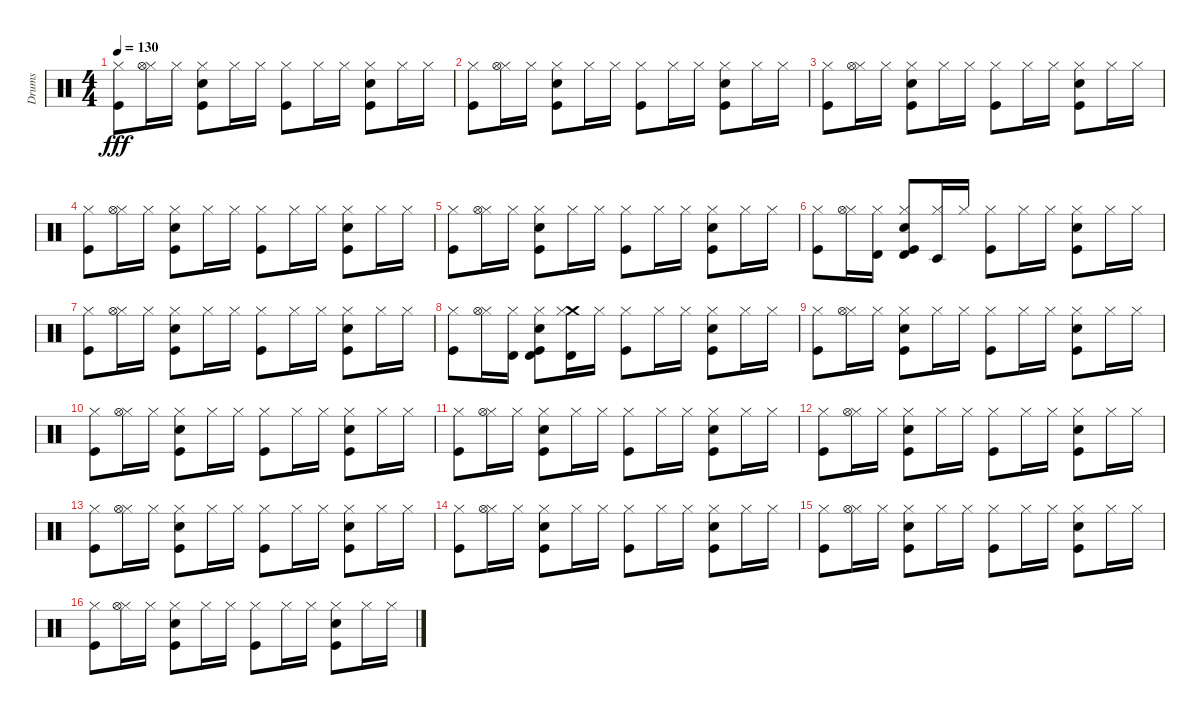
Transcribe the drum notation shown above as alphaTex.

\track ("Drums" "Drums") {instrument percussion}
\staff {score}
\articulation defaults
\ts (4 4)
\tempo 130
\clef neutral
\ks c
("Kick (hit)" "Hi-Hat (closed)").8{dy fff} ("Hi-Hat (closed)" "Hi-Hat (open)").16 "Hi-Hat (closed)".16 ("Kick (hit)" "Electric Snare (hit)" "Hi-Hat (closed)").8 "Hi-Hat (closed)".16 "Hi-Hat (closed)".16 ("Kick (hit)" "Hi-Hat (closed)").8 "Hi-Hat (closed)".16 "Hi-Hat (closed)".16 ("Kick (hit)" "Electric Snare (hit)" "Hi-Hat (closed)").8 "Hi-Hat (closed)".16 "Hi-Hat (closed)".16 |
("Kick (hit)" "Hi-Hat (closed)").8 ("Hi-Hat (closed)" "Hi-Hat (open)").16 "Hi-Hat (closed)".16 ("Kick (hit)" "Electric Snare (hit)" "Hi-Hat (closed)").8 "Hi-Hat (closed)".16 "Hi-Hat (closed)".16 ("Kick (hit)" "Hi-Hat (closed)").8 "Hi-Hat (closed)".16 "Hi-Hat (closed)".16 ("Kick (hit)" "Electric Snare (hit)" "Hi-Hat (closed)").8 "Hi-Hat (closed)".16 "Hi-Hat (closed)".16 |
("Kick (hit)" "Hi-Hat (closed)").8 ("Hi-Hat (closed)" "Hi-Hat (open)").16 "Hi-Hat (closed)".16 ("Kick (hit)" "Electric Snare (hit)" "Hi-Hat (closed)").8 "Hi-Hat (closed)".16 "Hi-Hat (closed)".16 ("Kick (hit)" "Hi-Hat (closed)").8 "Hi-Hat (closed)".16 "Hi-Hat (closed)".16 ("Kick (hit)" "Electric Snare (hit)" "Hi-Hat (closed)").8 "Hi-Hat (closed)".16 "Hi-Hat (closed)".16 |
("Kick (hit)" "Hi-Hat (closed)").8 ("Hi-Hat (closed)" "Hi-Hat (open)").16 "Hi-Hat (closed)".16 ("Kick (hit)" "Electric Snare (hit)" "Hi-Hat (closed)").8 "Hi-Hat (closed)".16 "Hi-Hat (closed)".16 ("Kick (hit)" "Hi-Hat (closed)").8 "Hi-Hat (closed)".16 "Hi-Hat (closed)".16 ("Kick (hit)" "Electric Snare (hit)" "Hi-Hat (closed)").8 "Hi-Hat (closed)".16 "Hi-Hat (closed)".16 |
("Kick (hit)" "Hi-Hat (closed)").8 ("Hi-Hat (closed)" "Hi-Hat (open)").16 "Hi-Hat (closed)".16 ("Kick (hit)" "Electric Snare (hit)" "Hi-Hat (closed)").8 "Hi-Hat (closed)".16 "Hi-Hat (closed)".16 ("Kick (hit)" "Hi-Hat (closed)").8 "Hi-Hat (closed)".16 "Hi-Hat (closed)".16 ("Kick (hit)" "Electric Snare (hit)" "Hi-Hat (closed)").8 "Hi-Hat (closed)".16 "Hi-Hat (closed)".16 |
("Kick (hit)" "Hi-Hat (closed)").8 ("Hi-Hat (closed)" "Hi-Hat (open)").16 ("Hi-Hat (closed)" "Timbale high (hit)").16 ("Kick (hit)" "Electric Snare (hit)" "Hi-Hat (closed)" "Timbale high (hit)").8 ("Hi-Hat (closed)" "Timbale low (hit)").16 "Hi-Hat (closed)".16 ("Kick (hit)" "Hi-Hat (closed)").8 "Hi-Hat (closed)".16 "Hi-Hat (closed)".16 ("Kick (hit)" "Electric Snare (hit)" "Hi-Hat (closed)").8 "Hi-Hat (closed)".16 "Hi-Hat (closed)".16 |
("Kick (hit)" "Hi-Hat (closed)").8 ("Hi-Hat (closed)" "Hi-Hat (open)").16 "Hi-Hat (closed)".16 ("Kick (hit)" "Electric Snare (hit)" "Hi-Hat (closed)").8 "Hi-Hat (closed)".16 "Hi-Hat (closed)".16 ("Kick (hit)" "Hi-Hat (closed)").8 "Hi-Hat (closed)".16 "Hi-Hat (closed)".16 ("Kick (hit)" "Electric Snare (hit)" "Hi-Hat (closed)").8 "Hi-Hat (closed)".16 "Hi-Hat (closed)".16 |
("Kick (hit)" "Hi-Hat (closed)").8 ("Hi-Hat (closed)" "Hi-Hat (open)").16 ("Hi-Hat (closed)" "Timbale high (hit)").16 ("Kick (hit)" "Electric Snare (hit)" "Hi-Hat (closed)" "Timbale high (hit)").8 ("Crash medium (hit)" "Hi-Hat (closed)" "Timbale high (hit)").16 "Hi-Hat (closed)".16 ("Kick (hit)" "Hi-Hat (closed)").8 "Hi-Hat (closed)".16 "Hi-Hat (closed)".16 ("Kick (hit)" "Electric Snare (hit)" "Hi-Hat (closed)").8 "Hi-Hat (closed)".16 "Hi-Hat (closed)".16 |
("Kick (hit)" "Hi-Hat (closed)").8 ("Hi-Hat (closed)" "Hi-Hat (open)").16 "Hi-Hat (closed)".16 ("Kick (hit)" "Electric Snare (hit)" "Hi-Hat (closed)").8 "Hi-Hat (closed)".16 "Hi-Hat (closed)".16 ("Kick (hit)" "Hi-Hat (closed)").8 "Hi-Hat (closed)".16 "Hi-Hat (closed)".16 ("Kick (hit)" "Electric Snare (hit)" "Hi-Hat (closed)").8 "Hi-Hat (closed)".16 "Hi-Hat (closed)".16 |
("Kick (hit)" "Hi-Hat (closed)").8 ("Hi-Hat (closed)" "Hi-Hat (open)").16 "Hi-Hat (closed)".16 ("Kick (hit)" "Electric Snare (hit)" "Hi-Hat (closed)").8 "Hi-Hat (closed)".16 "Hi-Hat (closed)".16 ("Kick (hit)" "Hi-Hat (closed)").8 "Hi-Hat (closed)".16 "Hi-Hat (closed)".16 ("Kick (hit)" "Electric Snare (hit)" "Hi-Hat (closed)").8 "Hi-Hat (closed)".16 "Hi-Hat (closed)".16 |
("Kick (hit)" "Hi-Hat (closed)").8 ("Hi-Hat (closed)" "Hi-Hat (open)").16 "Hi-Hat (closed)".16 ("Kick (hit)" "Electric Snare (hit)" "Hi-Hat (closed)").8 "Hi-Hat (closed)".16 "Hi-Hat (closed)".16 ("Kick (hit)" "Hi-Hat (closed)").8 "Hi-Hat (closed)".16 "Hi-Hat (closed)".16 ("Kick (hit)" "Electric Snare (hit)" "Hi-Hat (closed)").8 "Hi-Hat (closed)".16 "Hi-Hat (closed)".16 |
("Kick (hit)" "Hi-Hat (closed)").8 ("Hi-Hat (closed)" "Hi-Hat (open)").16 "Hi-Hat (closed)".16 ("Kick (hit)" "Electric Snare (hit)" "Hi-Hat (closed)").8 "Hi-Hat (closed)".16 "Hi-Hat (closed)".16 ("Kick (hit)" "Hi-Hat (closed)").8 "Hi-Hat (closed)".16 "Hi-Hat (closed)".16 ("Kick (hit)" "Electric Snare (hit)" "Hi-Hat (closed)").8 "Hi-Hat (closed)".16 "Hi-Hat (closed)".16 |
("Kick (hit)" "Hi-Hat (closed)").8 ("Hi-Hat (closed)" "Hi-Hat (open)").16 "Hi-Hat (closed)".16 ("Kick (hit)" "Electric Snare (hit)" "Hi-Hat (closed)").8 "Hi-Hat (closed)".16 "Hi-Hat (closed)".16 ("Kick (hit)" "Hi-Hat (closed)").8 "Hi-Hat (closed)".16 "Hi-Hat (closed)".16 ("Kick (hit)" "Electric Snare (hit)" "Hi-Hat (closed)").8 "Hi-Hat (closed)".16 "Hi-Hat (closed)".16 |
("Kick (hit)" "Hi-Hat (closed)").8 ("Hi-Hat (closed)" "Hi-Hat (open)").16 "Hi-Hat (closed)".16 ("Kick (hit)" "Electric Snare (hit)" "Hi-Hat (closed)").8 "Hi-Hat (closed)".16 "Hi-Hat (closed)".16 ("Kick (hit)" "Hi-Hat (closed)").8 "Hi-Hat (closed)".16 "Hi-Hat (closed)".16 ("Kick (hit)" "Electric Snare (hit)" "Hi-Hat (closed)").8 "Hi-Hat (closed)".16 "Hi-Hat (closed)".16 |
("Kick (hit)" "Hi-Hat (closed)").8 ("Hi-Hat (closed)" "Hi-Hat (open)").16 "Hi-Hat (closed)".16 ("Kick (hit)" "Electric Snare (hit)" "Hi-Hat (closed)").8 "Hi-Hat (closed)".16 "Hi-Hat (closed)".16 ("Kick (hit)" "Hi-Hat (closed)").8 "Hi-Hat (closed)".16 "Hi-Hat (closed)".16 ("Kick (hit)" "Electric Snare (hit)" "Hi-Hat (closed)").8 "Hi-Hat (closed)".16 "Hi-Hat (closed)".16 |
("Kick (hit)" "Hi-Hat (closed)").8 ("Hi-Hat (closed)" "Hi-Hat (open)").16 "Hi-Hat (closed)".16 ("Kick (hit)" "Electric Snare (hit)" "Hi-Hat (closed)").8 "Hi-Hat (closed)".16 "Hi-Hat (closed)".16 ("Kick (hit)" "Hi-Hat (closed)").8 "Hi-Hat (closed)".16 "Hi-Hat (closed)".16 ("Kick (hit)" "Electric Snare (hit)" "Hi-Hat (closed)").8 "Hi-Hat (closed)".16 "Hi-Hat (closed)".16
